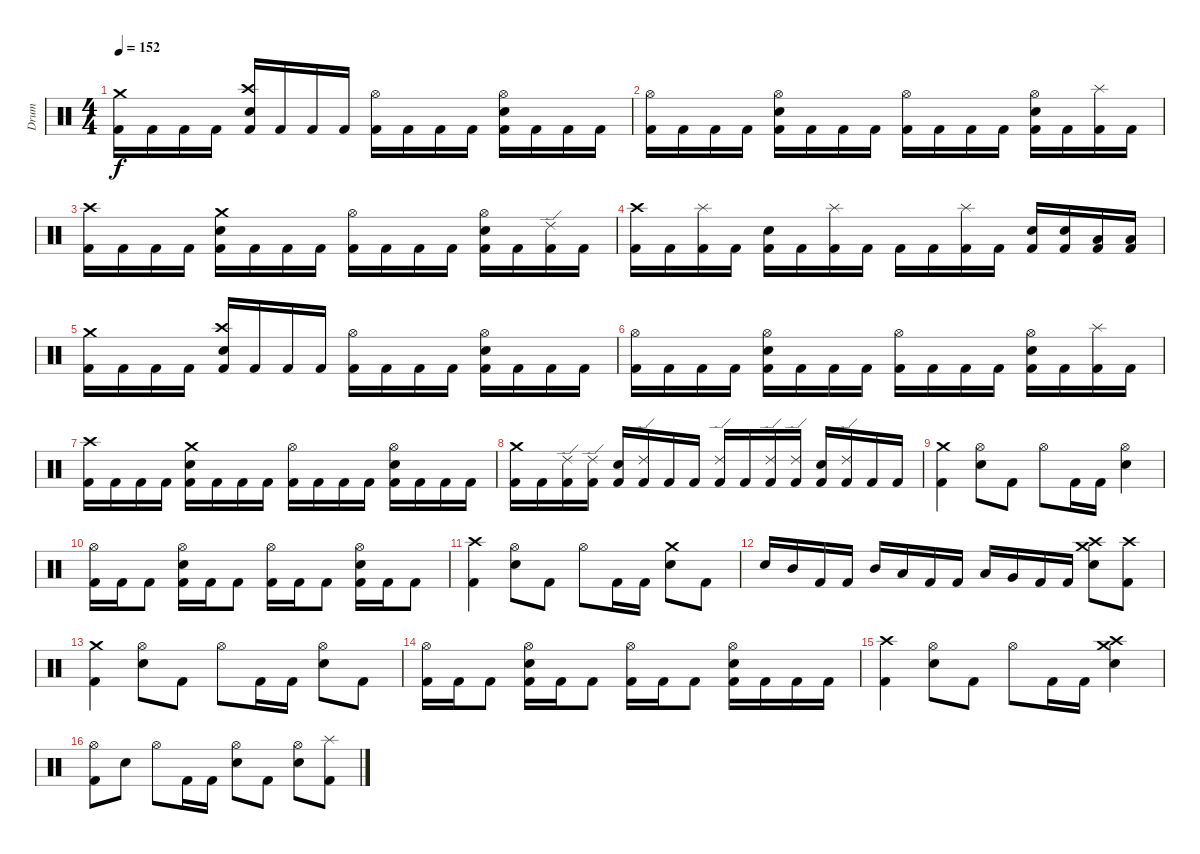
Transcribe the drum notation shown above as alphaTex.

\track ("Drum" "Drum") {instrument percussion}
\staff {score}
\articulation defaults
\ts (4 4)
\tempo 152
\clef neutral
\ks c
("Crash medium (hit)" "Kick (hit) 2").16{dy f} "Kick (hit) 2".16 "Kick (hit) 2".16 "Kick (hit) 2".16 ("Crash high (hit)" "Snare (hit) 2" "Kick (hit) 2").16 "Kick (hit) 2".16 "Kick (hit) 2".16 "Kick (hit) 2".16 ("Hi-Hat (open)" "Kick (hit) 2").16 "Kick (hit) 2".16 "Kick (hit) 2".16 "Kick (hit) 2".16 ("Hi-Hat (open)" "Snare (hit) 2" "Kick (hit) 2").16 "Kick (hit) 2".16 "Kick (hit) 2".16 "Kick (hit) 2".16 |
("Hi-Hat (open)" "Kick (hit) 2").16 "Kick (hit) 2".16 "Kick (hit) 2".16 "Kick (hit) 2".16 ("Hi-Hat (open)" "Snare (hit) 2" "Kick (hit) 2").16 "Kick (hit) 2".16 "Kick (hit) 2".16 "Kick (hit) 2".16 ("Hi-Hat (open)" "Kick (hit) 2").16 "Kick (hit) 2".16 "Kick (hit) 2".16 "Kick (hit) 2".16 ("Hi-Hat (open)" "Snare (hit) 2" "Kick (hit) 2").16 "Kick (hit) 2".16 ("Splash (hit)" "Kick (hit) 2").16 "Kick (hit) 2".16 |
("Crash high (hit)" "Kick (hit) 2").16 "Kick (hit) 2".16 "Kick (hit) 2".16 "Kick (hit) 2".16 ("Crash medium (hit)" "Snare (hit) 2" "Kick (hit) 2").16 "Kick (hit) 2".16 "Kick (hit) 2".16 "Kick (hit) 2".16 ("Hi-Hat (open)" "Kick (hit) 2").16 "Kick (hit) 2".16 "Kick (hit) 2".16 "Kick (hit) 2".16 ("Hi-Hat (open)" "Snare (hit) 2" "Kick (hit) 2").16 "Kick (hit) 2".16 ("Ride (edge) 2" "Kick (hit) 2").16 "Kick (hit) 2".16 |
("Crash high (hit)" "Kick (hit) 2").16 "Kick (hit) 2".16 ("Splash (hit)" "Kick (hit) 2").16 "Kick (hit) 2".16 ("Snare (hit) 2" "Kick (hit) 2").16 "Kick (hit) 2".16 ("Splash (hit)" "Kick (hit) 2").16 "Kick (hit) 2".16 "Kick (hit) 2".16 "Kick (hit) 2".16 ("Splash (hit)" "Kick (hit) 2").16 "Kick (hit) 2".16 ("Snare (hit) 2" "Kick (hit) 2").16 ("Snare (hit) 2" "Kick (hit) 2").16 ("Low Tom (hit)" "Kick (hit) 2").16 ("Low Tom (hit)" "Kick (hit) 2").16 |
("Crash medium (hit)" "Kick (hit) 2").16 "Kick (hit) 2".16 "Kick (hit) 2".16 "Kick (hit) 2".16 ("Crash high (hit)" "Snare (hit) 2" "Kick (hit) 2").16 "Kick (hit) 2".16 "Kick (hit) 2".16 "Kick (hit) 2".16 ("Hi-Hat (open)" "Kick (hit) 2").16 "Kick (hit) 2".16 "Kick (hit) 2".16 "Kick (hit) 2".16 ("Hi-Hat (open)" "Snare (hit) 2" "Kick (hit) 2").16 "Kick (hit) 2".16 "Kick (hit) 2".16 "Kick (hit) 2".16 |
("Hi-Hat (open)" "Kick (hit) 2").16 "Kick (hit) 2".16 "Kick (hit) 2".16 "Kick (hit) 2".16 ("Hi-Hat (open)" "Snare (hit) 2" "Kick (hit) 2").16 "Kick (hit) 2".16 "Kick (hit) 2".16 "Kick (hit) 2".16 ("Hi-Hat (open)" "Kick (hit) 2").16 "Kick (hit) 2".16 "Kick (hit) 2".16 "Kick (hit) 2".16 ("Hi-Hat (open)" "Snare (hit) 2" "Kick (hit) 2").16 "Kick (hit) 2".16 ("Splash (hit)" "Kick (hit) 2").16 "Kick (hit) 2".16 |
("Crash high (hit)" "Kick (hit) 2").16 "Kick (hit) 2".16 "Kick (hit) 2".16 "Kick (hit) 2".16 ("Crash medium (hit)" "Snare (hit) 2" "Kick (hit) 2").16 "Kick (hit) 2".16 "Kick (hit) 2".16 "Kick (hit) 2".16 ("Hi-Hat (open)" "Kick (hit) 2").16 "Kick (hit) 2".16 "Kick (hit) 2".16 "Kick (hit) 2".16 ("Hi-Hat (open)" "Snare (hit) 2" "Kick (hit) 2").16 "Kick (hit) 2".16 "Kick (hit) 2".16 "Kick (hit) 2".16 |
("Crash medium (hit)" "Kick (hit) 2").16 "Kick (hit) 2".16 ("Ride (edge) 2" "Kick (hit) 2").16 ("Ride (edge) 2" "Kick (hit) 2").16 ("Snare (hit) 2" "Kick (hit) 2").16 ("Ride (edge) 2" "Kick (hit) 2").16 "Kick (hit) 2".16 "Kick (hit) 2".16 ("Ride (edge) 2" "Kick (hit) 2").16 "Kick (hit) 2".16 ("Ride (edge) 2" "Kick (hit) 2").16 ("Ride (edge) 2" "Kick (hit) 2").16 ("Snare (hit) 2" "Kick (hit) 2").16 ("Ride (edge) 2" "Kick (hit) 2").16 "Kick (hit) 2".16 "Kick (hit) 2".16 |
("Crash medium (hit)" "Kick (hit) 2").4 ("Hi-Hat (open)" "Snare (hit) 2").8 "Kick (hit) 2".8 "Hi-Hat (open)".8 "Kick (hit) 2".16 "Kick (hit) 2".16 ("Hi-Hat (open)" "Snare (hit) 2").4 |
("Hi-Hat (open)" "Kick (hit) 2").16 "Kick (hit) 2".16 "Kick (hit) 2".8 ("Hi-Hat (open)" "Snare (hit) 2" "Kick (hit) 2").16 "Kick (hit) 2".16 "Kick (hit) 2".8 ("Hi-Hat (open)" "Kick (hit) 2").16 "Kick (hit) 2".16 "Kick (hit) 2".8 ("Hi-Hat (open)" "Snare (hit) 2" "Kick (hit) 2").16 "Kick (hit) 2".16 "Kick (hit) 2".8 |
("Crash high (hit)" "Kick (hit) 2").4 ("Hi-Hat (open)" "Snare (hit) 2").8 "Kick (hit) 2".8 "Hi-Hat (open)".8 "Kick (hit) 2".16 "Kick (hit) 2".16 ("Crash medium (hit)" "Snare (hit) 2").8 "Kick (hit) 2".8 |
"Snare (hit) 2".16 "Mid Tom (hit)".16 "Kick (hit) 2".16 "Kick (hit) 2".16 "Mid Tom (hit)".16 "Low Tom (hit)".16 "Kick (hit) 2".16 "Kick (hit) 2".16 "Low Tom (hit)".16 "Very Low Tom (hit)".16 "Kick (hit) 2".16 "Kick (hit) 2".16 ("Crash medium (hit)" "Crash high (hit)" "Snare (hit) 2").8 ("Crash high (hit)" "Kick (hit) 2").8 |
("Crash medium (hit)" "Kick (hit) 2").4 ("Hi-Hat (open)" "Snare (hit) 2").8 "Kick (hit) 2".8 "Hi-Hat (open)".8 "Kick (hit) 2".16 "Kick (hit) 2".16 ("Hi-Hat (open)" "Snare (hit) 2").8 "Kick (hit) 2".8 |
("Hi-Hat (open)" "Kick (hit) 2").16 "Kick (hit) 2".16 "Kick (hit) 2".8 ("Hi-Hat (open)" "Snare (hit) 2" "Kick (hit) 2").16 "Kick (hit) 2".16 "Kick (hit) 2".8 ("Hi-Hat (open)" "Kick (hit) 2").16 "Kick (hit) 2".16 "Kick (hit) 2".8 ("Hi-Hat (open)" "Snare (hit) 2" "Kick (hit) 2").16 "Kick (hit) 2".16 "Kick (hit) 2".16 "Kick (hit) 2".16 |
("Crash high (hit)" "Kick (hit) 2").4 ("Hi-Hat (open)" "Snare (hit) 2").8 "Kick (hit) 2".8 "Hi-Hat (open)".8 "Kick (hit) 2".16 "Kick (hit) 2".16 ("Crash medium (hit)" "Crash high (hit)" "Snare (hit) 2").4 |
("Hi-Hat (open)" "Kick (hit) 2").8 "Snare (hit) 2".8 "Hi-Hat (open)".8 "Kick (hit) 2".16 "Kick (hit) 2".16 ("Hi-Hat (open)" "Snare (hit) 2").8 "Kick (hit) 2".8 ("Hi-Hat (open)" "Snare (hit) 2").8 ("Splash (hit)" "Kick (hit) 2").8
